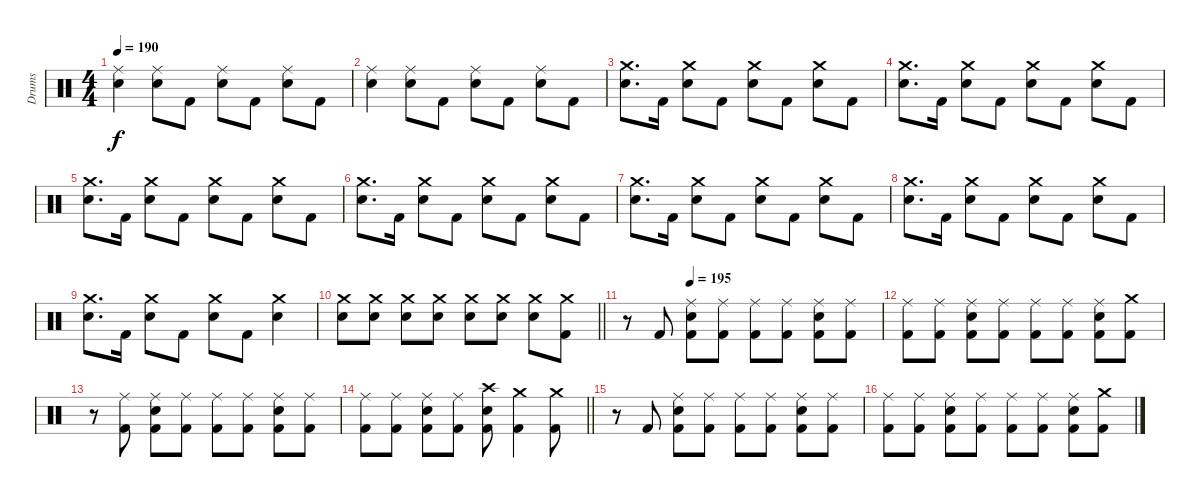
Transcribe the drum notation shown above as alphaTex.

\track ("Drums" "Drums") {instrument percussion}
\staff {score}
\articulation defaults
\ts (4 4)
\tempo 190
\clef neutral
\ks c
("Ride (middle)" "Electric Snare (hit)").4{dy f} ("Ride (middle)" "Electric Snare (hit)").8 "Kick (hit) 2".8 ("Ride (middle)" "Electric Snare (hit)").8 "Kick (hit) 2".8 ("Ride (middle)" "Electric Snare (hit)").8 "Kick (hit) 2".8 |
("Ride (middle)" "Electric Snare (hit)").4 ("Ride (middle)" "Electric Snare (hit)").8 "Kick (hit) 2".8 ("Ride (middle)" "Electric Snare (hit)").8 "Kick (hit) 2".8 ("Ride (middle)" "Electric Snare (hit)").8 "Kick (hit) 2".8 |
("Crash medium (hit)" "Electric Snare (hit)").8{d} "Kick (hit) 2".16 ("Crash medium (hit)" "Electric Snare (hit)").8 "Kick (hit) 2".8 ("Crash medium (hit)" "Electric Snare (hit)").8 "Kick (hit) 2".8 ("Crash medium (hit)" "Electric Snare (hit)").8 "Kick (hit) 2".8 |
("Crash medium (hit)" "Electric Snare (hit)").8{d} "Kick (hit) 2".16 ("Crash medium (hit)" "Electric Snare (hit)").8 "Kick (hit) 2".8 ("Crash medium (hit)" "Electric Snare (hit)").8 "Kick (hit) 2".8 ("Crash medium (hit)" "Electric Snare (hit)").8 "Kick (hit) 2".8 |
("Crash medium (hit)" "Electric Snare (hit)").8{d} "Kick (hit) 2".16 ("Crash medium (hit)" "Electric Snare (hit)").8 "Kick (hit) 2".8 ("Crash medium (hit)" "Electric Snare (hit)").8 "Kick (hit) 2".8 ("Crash medium (hit)" "Electric Snare (hit)").8 "Kick (hit) 2".8 |
("Crash medium (hit)" "Electric Snare (hit)").8{d} "Kick (hit) 2".16 ("Crash medium (hit)" "Electric Snare (hit)").8 "Kick (hit) 2".8 ("Crash medium (hit)" "Electric Snare (hit)").8 "Kick (hit) 2".8 ("Crash medium (hit)" "Electric Snare (hit)").8 "Kick (hit) 2".8 |
("Crash medium (hit)" "Electric Snare (hit)").8{d} "Kick (hit) 2".16 ("Crash medium (hit)" "Electric Snare (hit)").8 "Kick (hit) 2".8 ("Crash medium (hit)" "Electric Snare (hit)").8 "Kick (hit) 2".8 ("Crash medium (hit)" "Electric Snare (hit)").8 "Kick (hit) 2".8 |
("Crash medium (hit)" "Electric Snare (hit)").8{d} "Kick (hit) 2".16 ("Crash medium (hit)" "Electric Snare (hit)").8 "Kick (hit) 2".8 ("Crash medium (hit)" "Electric Snare (hit)").8 "Kick (hit) 2".8 ("Crash medium (hit)" "Electric Snare (hit)").8 "Kick (hit) 2".8 |
("Crash medium (hit)" "Electric Snare (hit)").8{d} "Kick (hit) 2".16 ("Crash medium (hit)" "Electric Snare (hit)").8 "Kick (hit) 2".8 ("Crash medium (hit)" "Electric Snare (hit)").8 "Kick (hit) 2".8 ("Crash medium (hit)" "Electric Snare (hit)").4 |
\barLineRight lightlight
("Crash medium (hit)" "Electric Snare (hit)").8 ("Crash medium (hit)" "Electric Snare (hit)").8 ("Crash medium (hit)" "Electric Snare (hit)").8 ("Crash medium (hit)" "Electric Snare (hit)").8 ("Crash medium (hit)" "Electric Snare (hit)").8 ("Crash medium (hit)" "Electric Snare (hit)").8 ("Crash medium (hit)" "Electric Snare (hit)").8 ("Crash medium (hit)" "Kick (hit) 2").8 |
\section ("" "")
\tempo (195 0.25)
r.8 "Kick (hit) 2".8 ("Ride (middle)" "Electric Snare (hit)" "Kick (hit) 2").8 ("Ride (middle)" "Kick (hit) 2").8 ("Ride (middle)" "Kick (hit) 2").8 ("Ride (middle)" "Kick (hit) 2").8 ("Ride (middle)" "Electric Snare (hit)" "Kick (hit) 2").8 ("Ride (middle)" "Kick (hit) 2").8 |
("Ride (middle)" "Kick (hit) 2").8 ("Ride (middle)" "Kick (hit) 2").8 ("Ride (middle)" "Electric Snare (hit)" "Kick (hit) 2").8 ("Ride (middle)" "Kick (hit) 2").8 ("Ride (middle)" "Kick (hit) 2").8 ("Ride (middle)" "Kick (hit) 2").8 ("Ride (middle)" "Electric Snare (hit)" "Kick (hit) 2").8 ("Crash medium (hit)" "Kick (hit) 2").8 |
r.8 ("Ride (middle)" "Kick (hit) 2").8 ("Ride (middle)" "Electric Snare (hit)" "Kick (hit) 2").8 ("Ride (middle)" "Kick (hit) 2").8 ("Ride (middle)" "Kick (hit) 2").8 ("Ride (middle)" "Kick (hit) 2").8 ("Ride (middle)" "Electric Snare (hit)" "Kick (hit) 2").8 ("Ride (middle)" "Kick (hit) 2").8 |
\barLineRight lightlight
("Ride (middle)" "Kick (hit) 2").8 ("Ride (middle)" "Kick (hit) 2").8 ("Ride (middle)" "Electric Snare (hit)" "Kick (hit) 2").8 ("Ride (middle)" "Kick (hit) 2").8 ("Crash high (hit)" "Electric Snare (hit)" "Kick (hit) 2").8 ("Crash medium (hit)" "Kick (hit) 2").4 ("Crash medium (hit)" "Kick (hit) 2").8 |
r.8 "Kick (hit) 2".8 ("Ride (middle)" "Electric Snare (hit)" "Kick (hit) 2").8 ("Ride (middle)" "Kick (hit) 2").8 ("Ride (middle)" "Kick (hit) 2").8 ("Ride (middle)" "Kick (hit) 2").8 ("Ride (middle)" "Electric Snare (hit)" "Kick (hit) 2").8 ("Ride (middle)" "Kick (hit) 2").8 |
("Ride (middle)" "Kick (hit) 2").8 ("Ride (middle)" "Kick (hit) 2").8 ("Ride (middle)" "Electric Snare (hit)" "Kick (hit) 2").8 ("Ride (middle)" "Kick (hit) 2").8 ("Ride (middle)" "Kick (hit) 2").8 ("Ride (middle)" "Kick (hit) 2").8 ("Ride (middle)" "Electric Snare (hit)" "Kick (hit) 2").8 ("Crash medium (hit)" "Kick (hit) 2").8
